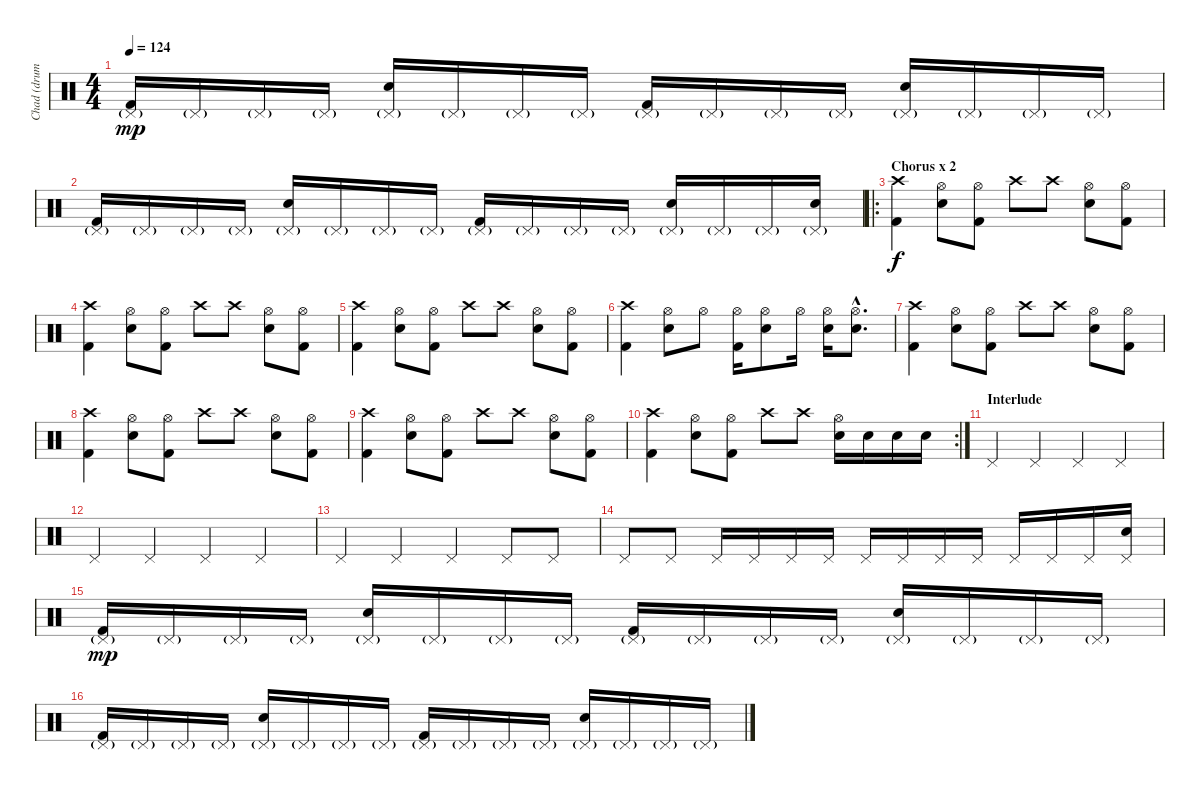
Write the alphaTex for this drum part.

\track ("Chad (drums)" "Chad (drum") {instrument percussion}
\staff {score}
\articulation defaults
\ts (4 4)
\tempo 124
\clef neutral
\ks c
("Kick (hit) 2" "Pedal Hi-Hat (hit)"{g}).16{dy mp} "Pedal Hi-Hat (hit)"{g}.16 "Pedal Hi-Hat (hit)"{g}.16 "Pedal Hi-Hat (hit)"{g}.16 ("Electric Snare (hit)" "Pedal Hi-Hat (hit)"{g}).16 "Pedal Hi-Hat (hit)"{g}.16 "Pedal Hi-Hat (hit)"{g}.16 "Pedal Hi-Hat (hit)"{g}.16 ("Kick (hit) 2" "Pedal Hi-Hat (hit)"{g}).16 "Pedal Hi-Hat (hit)"{g}.16 "Pedal Hi-Hat (hit)"{g}.16 "Pedal Hi-Hat (hit)"{g}.16 ("Electric Snare (hit)" "Pedal Hi-Hat (hit)"{g}).16 "Pedal Hi-Hat (hit)"{g}.16 "Pedal Hi-Hat (hit)"{g}.16 "Pedal Hi-Hat (hit)"{g}.16 |
("Kick (hit) 2" "Pedal Hi-Hat (hit)"{g}).16 "Pedal Hi-Hat (hit)"{g}.16 "Pedal Hi-Hat (hit)"{g}.16 "Pedal Hi-Hat (hit)"{g}.16 ("Electric Snare (hit)" "Pedal Hi-Hat (hit)"{g}).16 "Pedal Hi-Hat (hit)"{g}.16 "Pedal Hi-Hat (hit)"{g}.16 "Pedal Hi-Hat (hit)"{g}.16 ("Kick (hit) 2" "Pedal Hi-Hat (hit)"{g}).16 "Pedal Hi-Hat (hit)"{g}.16 "Pedal Hi-Hat (hit)"{g}.16 "Pedal Hi-Hat (hit)"{g}.16 ("Electric Snare (hit)" "Pedal Hi-Hat (hit)"{g}).16 "Pedal Hi-Hat (hit)"{g}.16 "Pedal Hi-Hat (hit)"{g}.16 ("Electric Snare (hit)" "Pedal Hi-Hat (hit)"{g}).16 |
\ro
\section ("" "Chorus x 2")
("Kick (hit) 2" "Crash high (hit)").4{dy f} ("Electric Snare (hit)" "Hi-Hat (open)").8 ("Kick (hit) 2" "Hi-Hat (open)").8 "Crash high (hit)".8 "Crash high (hit)".8 ("Electric Snare (hit)" "Hi-Hat (open)").8 ("Kick (hit) 2" "Hi-Hat (open)").8 |
("Kick (hit) 2" "Crash high (hit)").4 ("Electric Snare (hit)" "Hi-Hat (open)").8 ("Kick (hit) 2" "Hi-Hat (open)").8 "Crash high (hit)".8 "Crash high (hit)".8 ("Electric Snare (hit)" "Hi-Hat (open)").8 ("Kick (hit) 2" "Hi-Hat (open)").8 |
("Kick (hit) 2" "Crash high (hit)").4 ("Electric Snare (hit)" "Hi-Hat (open)").8 ("Kick (hit) 2" "Hi-Hat (open)").8 "Crash high (hit)".8 "Crash high (hit)".8 ("Electric Snare (hit)" "Hi-Hat (open)").8 ("Kick (hit) 2" "Hi-Hat (open)").8 |
("Kick (hit) 2" "Crash high (hit)").4 ("Electric Snare (hit)" "Hi-Hat (open)").8 "Hi-Hat (open)".8 ("Kick (hit) 2" "Hi-Hat (open)").16 ("Electric Snare (hit)" "Hi-Hat (open)").8 "Hi-Hat (open)".16 ("Electric Snare (hit)" "Hi-Hat (open)").16 ("Electric Snare (hit)"{hac} "Hi-Hat (open)"{hac}).8{d} |
("Kick (hit) 2" "Crash high (hit)").4 ("Electric Snare (hit)" "Hi-Hat (open)").8 ("Kick (hit) 2" "Hi-Hat (open)").8 "Crash high (hit)".8 "Crash high (hit)".8 ("Electric Snare (hit)" "Hi-Hat (open)").8 ("Kick (hit) 2" "Hi-Hat (open)").8 |
("Kick (hit) 2" "Crash high (hit)").4 ("Electric Snare (hit)" "Hi-Hat (open)").8 ("Kick (hit) 2" "Hi-Hat (open)").8 "Crash high (hit)".8 "Crash high (hit)".8 ("Electric Snare (hit)" "Hi-Hat (open)").8 ("Kick (hit) 2" "Hi-Hat (open)").8 |
("Kick (hit) 2" "Crash high (hit)").4 ("Electric Snare (hit)" "Hi-Hat (open)").8 ("Kick (hit) 2" "Hi-Hat (open)").8 "Crash high (hit)".8 "Crash high (hit)".8 ("Electric Snare (hit)" "Hi-Hat (open)").8 ("Kick (hit) 2" "Hi-Hat (open)").8 |
\rc 2
("Kick (hit) 2" "Crash high (hit)").4 ("Electric Snare (hit)" "Hi-Hat (open)").8 ("Kick (hit) 2" "Hi-Hat (open)").8 "Crash high (hit)".8 "Crash high (hit)".8 ("Electric Snare (hit)" "Hi-Hat (open)").16 "Electric Snare (hit)".16 "Electric Snare (hit)".16 "Electric Snare (hit)".16 |
\section ("" "Interlude")
"Pedal Hi-Hat (hit)".4 "Pedal Hi-Hat (hit)".4 "Pedal Hi-Hat (hit)".4 "Pedal Hi-Hat (hit)".4 |
"Pedal Hi-Hat (hit)".4 "Pedal Hi-Hat (hit)".4 "Pedal Hi-Hat (hit)".4 "Pedal Hi-Hat (hit)".4 |
"Pedal Hi-Hat (hit)".4 "Pedal Hi-Hat (hit)".4 "Pedal Hi-Hat (hit)".4 "Pedal Hi-Hat (hit)".8 "Pedal Hi-Hat (hit)".8 |
"Pedal Hi-Hat (hit)".8 "Pedal Hi-Hat (hit)".8 "Pedal Hi-Hat (hit)".16 "Pedal Hi-Hat (hit)".16 "Pedal Hi-Hat (hit)".16 "Pedal Hi-Hat (hit)".16 "Pedal Hi-Hat (hit)".16 "Pedal Hi-Hat (hit)".16 "Pedal Hi-Hat (hit)".16 "Pedal Hi-Hat (hit)".16 "Pedal Hi-Hat (hit)".16 "Pedal Hi-Hat (hit)".16 "Pedal Hi-Hat (hit)".16 ("Electric Snare (hit)" "Pedal Hi-Hat (hit)").16 |
("Kick (hit) 2" "Pedal Hi-Hat (hit)"{g}).16{dy mp} "Pedal Hi-Hat (hit)"{g}.16 "Pedal Hi-Hat (hit)"{g}.16 "Pedal Hi-Hat (hit)"{g}.16 ("Electric Snare (hit)" "Pedal Hi-Hat (hit)"{g}).16 "Pedal Hi-Hat (hit)"{g}.16 "Pedal Hi-Hat (hit)"{g}.16 "Pedal Hi-Hat (hit)"{g}.16 ("Kick (hit) 2" "Pedal Hi-Hat (hit)"{g}).16 "Pedal Hi-Hat (hit)"{g}.16 "Pedal Hi-Hat (hit)"{g}.16 "Pedal Hi-Hat (hit)"{g}.16 ("Electric Snare (hit)" "Pedal Hi-Hat (hit)"{g}).16 "Pedal Hi-Hat (hit)"{g}.16 "Pedal Hi-Hat (hit)"{g}.16 "Pedal Hi-Hat (hit)"{g}.16 |
("Kick (hit) 2" "Pedal Hi-Hat (hit)"{g}).16 "Pedal Hi-Hat (hit)"{g}.16 "Pedal Hi-Hat (hit)"{g}.16 "Pedal Hi-Hat (hit)"{g}.16 ("Electric Snare (hit)" "Pedal Hi-Hat (hit)"{g}).16 "Pedal Hi-Hat (hit)"{g}.16 "Pedal Hi-Hat (hit)"{g}.16 "Pedal Hi-Hat (hit)"{g}.16 ("Kick (hit) 2" "Pedal Hi-Hat (hit)"{g}).16 "Pedal Hi-Hat (hit)"{g}.16 "Pedal Hi-Hat (hit)"{g}.16 "Pedal Hi-Hat (hit)"{g}.16 ("Electric Snare (hit)" "Pedal Hi-Hat (hit)"{g}).16 "Pedal Hi-Hat (hit)"{g}.16 "Pedal Hi-Hat (hit)"{g}.16 "Pedal Hi-Hat (hit)"{g}.16
